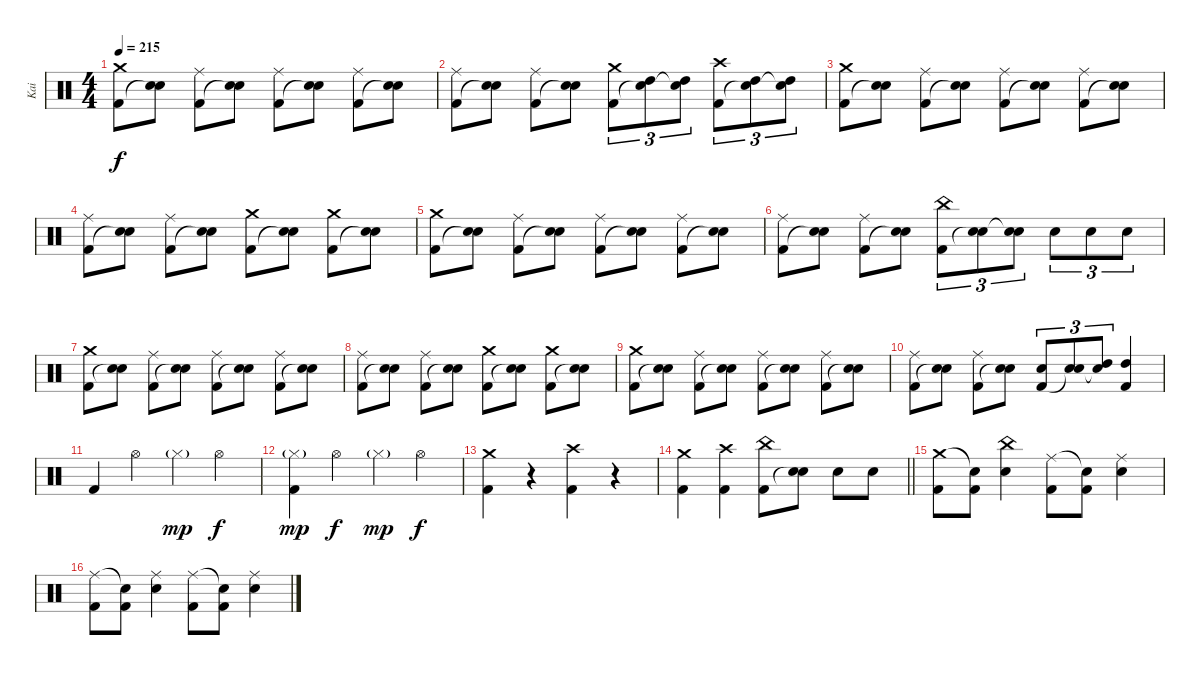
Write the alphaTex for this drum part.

\track ("Kai" "Kai") {instrument percussion}
\staff {score}
\articulation defaults
\ts (4 4)
\tempo 215
\clef neutral
\ks c
("Crash medium (hit)" "Kick (hit) 2").8{dy f} ("Snare (hit) 2" "Snare (hit)"{t}).8 ("Ride (middle)" "Kick (hit) 2").8 ("Snare (hit) 2" "Snare (hit)"{t}).8 ("Ride (middle)" "Kick (hit) 2").8 ("Snare (hit) 2" "Snare (hit)"{t}).8 ("Ride (middle)" "Kick (hit) 2").8 ("Snare (hit) 2" "Snare (hit)"{t}).8 |
("Ride (middle)" "Kick (hit) 2").8 ("Snare (hit) 2" "Snare (hit)"{t}).8 ("Ride (middle)" "Kick (hit) 2").8 ("Snare (hit) 2" "Snare (hit)"{t}).8 ("Crash medium (hit)" "Kick (hit) 2").8{tu (3 2)} ("High Tom (hit)" "Snare (hit)"{t}).8{tu (3 2)} ("High Tom (hit)" "Snare (hit)"{t}).8{tu (3 2)} ("Crash high (hit)" "Kick (hit) 2").8{tu (3 2)} ("High Tom (hit)" "Snare (hit)"{t}).8{tu (3 2)} ("High Tom (hit)" "Snare (hit)"{t}).8{tu (3 2)} |
("Crash medium (hit)" "Kick (hit) 2").8 ("Snare (hit) 2" "Snare (hit)"{t}).8 ("Ride (middle)" "Kick (hit) 2").8 ("Snare (hit) 2" "Snare (hit)"{t}).8 ("Ride (middle)" "Kick (hit) 2").8 ("Snare (hit) 2" "Snare (hit)"{t}).8 ("Ride (middle)" "Kick (hit) 2").8 ("Snare (hit) 2" "Snare (hit)"{t}).8 |
("Ride (middle)" "Kick (hit) 2").8 ("Snare (hit) 2" "Snare (hit)"{t}).8 ("Ride (middle)" "Kick (hit) 2").8 ("Snare (hit) 2" "Snare (hit)"{t}).8 ("Crash medium (hit)" "Kick (hit) 2").8 ("Snare (hit) 2" "Snare (hit)"{t}).8 ("Crash medium (hit)" "Kick (hit) 2").8 ("Snare (hit) 2" "Snare (hit)"{t}).8 |
("Crash medium (hit)" "Kick (hit) 2").8 ("Snare (hit) 2" "Snare (hit)"{t}).8 ("Ride (middle)" "Kick (hit) 2").8 ("Snare (hit) 2" "Snare (hit)"{t}).8 ("Ride (middle)" "Kick (hit) 2").8 ("Snare (hit) 2" "Snare (hit)"{t}).8 ("Ride (middle)" "Kick (hit) 2").8 ("Snare (hit) 2" "Snare (hit)"{t}).8 |
("Ride (middle)" "Kick (hit) 2").8 ("Snare (hit) 2" "Snare (hit)"{t}).8 ("Ride (middle)" "Kick (hit) 2").8 ("Snare (hit) 2" "Snare (hit)"{t}).8 ("China (hit)" "Kick (hit) 2").8{tu (3 2)} ("Snare (hit) 2" "Snare (hit)"{t}).8{tu (3 2)} ("Snare (hit) 2" "Snare (hit)"{t}).8{tu (3 2)} "Snare (hit) 2".8{tu (3 2)} "Snare (hit) 2".8{tu (3 2)} "Snare (hit) 2".8{tu (3 2)} |
("Crash medium (hit)" "Kick (hit) 2").8 ("Snare (hit) 2" "Snare (hit)"{t}).8 ("Ride (middle)" "Kick (hit) 2").8 ("Snare (hit) 2" "Snare (hit)"{t}).8 ("Ride (middle)" "Kick (hit) 2").8 ("Snare (hit) 2" "Snare (hit)"{t}).8 ("Ride (middle)" "Kick (hit) 2").8 ("Snare (hit) 2" "Snare (hit)"{t}).8 |
("Ride (middle)" "Kick (hit) 2").8 ("Snare (hit) 2" "Snare (hit)"{t}).8 ("Ride (middle)" "Kick (hit) 2").8 ("Snare (hit) 2" "Snare (hit)"{t}).8 ("Crash medium (hit)" "Kick (hit) 2").8 ("Snare (hit) 2" "Snare (hit)"{t}).8 ("Crash medium (hit)" "Kick (hit) 2").8 ("Snare (hit) 2" "Snare (hit)"{t}).8 |
("Crash medium (hit)" "Kick (hit) 2").8 ("Snare (hit) 2" "Snare (hit)"{t}).8 ("Ride (middle)" "Kick (hit) 2").8 ("Snare (hit) 2" "Snare (hit)"{t}).8 ("Ride (middle)" "Kick (hit) 2").8 ("Snare (hit) 2" "Snare (hit)"{t}).8 ("Ride (middle)" "Kick (hit) 2").8 ("Snare (hit) 2" "Snare (hit)"{t}).8 |
("Ride (middle)" "Kick (hit) 2").8 ("Snare (hit) 2" "Snare (hit)"{t}).8 ("Ride (middle)" "Kick (hit) 2").8 ("Snare (hit) 2" "Snare (hit)"{t}).8 ("Snare (hit) 2" "Kick (hit) 2").8{tu (3 2)} ("Snare (hit) 2" "Snare (hit)"{t}).8{tu (3 2)} ("High Tom (hit)" "Snare (hit)"{t}).8{tu (3 2)} ("High Tom (hit)" "Kick (hit) 2").4 |
"Kick (hit) 2".4 "Hi-Hat (open)".4 "Hi-Hat (closed)"{g}.4{dy mp} "Hi-Hat (open)".4{dy f} |
("Hi-Hat (closed)"{g} "Kick (hit) 2").4{dy mp} "Hi-Hat (open)".4{dy f} "Hi-Hat (closed)"{g}.4{dy mp} "Hi-Hat (open)".4{dy f} |
("Crash medium (hit)" "Kick (hit) 2").4 r.4 ("Crash high (hit)" "Kick (hit) 2").4 r.4 |
\barLineRight lightlight
("Crash medium (hit)" "Kick (hit) 2").4 ("Crash high (hit)" "Kick (hit) 2").4 ("China (hit)" "Kick (hit) 2").8 ("Snare (hit) 2" "Snare (hit)"{t}).8 "Snare (hit) 2".8 "Snare (hit) 2".8 |
("Crash medium (hit)" "Kick (hit) 2").8 ("Snare (hit)"{t} "Kick (hit) 2").8 ("China (hit)" "Snare (hit) 2").4 ("Ride (middle)" "Kick (hit) 2").8 ("Snare (hit)"{t} "Kick (hit) 2").8 ("Ride (middle)" "Snare (hit) 2").4 |
("Ride (middle)" "Kick (hit) 2").8 ("Snare (hit)"{t} "Kick (hit) 2").8 ("Ride (middle)" "Snare (hit) 2").4 ("Ride (middle)" "Kick (hit) 2").8 ("Snare (hit)"{t} "Kick (hit) 2").8 ("Ride (middle)" "Snare (hit) 2").4
